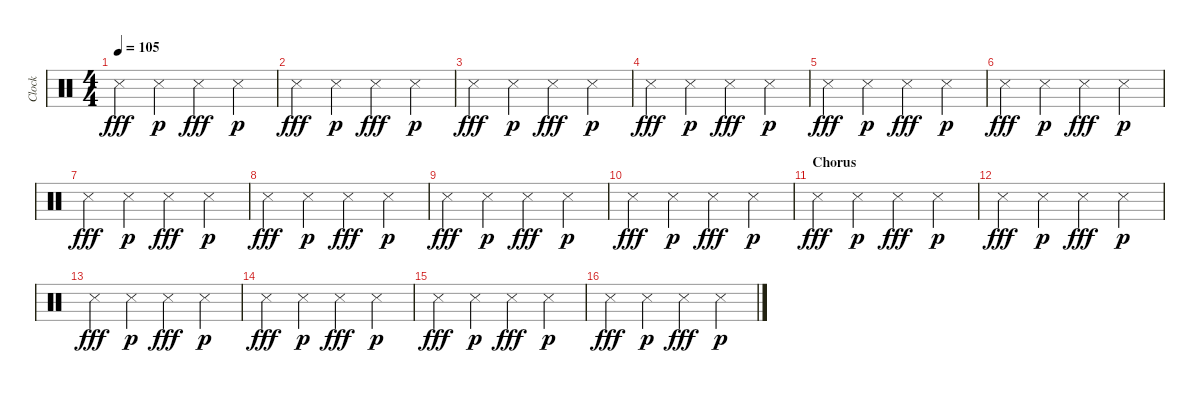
\track ("Clock" "Clock") {instrument percussion}
\staff {score}
\articulation defaults
\ts (4 4)
\tempo 105
\clef neutral
\ks c "Metronome (hit)".4{dy fff} "Metronome (hit)".4{dy p} "Metronome (hit)".4{dy fff} "Metronome (hit)".4{dy p}
|
"Metronome (hit)".4{dy fff} "Metronome (hit)".4{dy p} "Metronome (hit)".4{dy fff} "Metronome (hit)".4{dy p} |
"Metronome (hit)".4{dy fff} "Metronome (hit)".4{dy p} "Metronome (hit)".4{dy fff} "Metronome (hit)".4{dy p} |
"Metronome (hit)".4{dy fff} "Metronome (hit)".4{dy p} "Metronome (hit)".4{dy fff} "Metronome (hit)".4{dy p} |
"Metronome (hit)".4{dy fff} "Metronome (hit)".4{dy p} "Metronome (hit)".4{dy fff} "Metronome (hit)".4{dy p} |
"Metronome (hit)".4{dy fff} "Metronome (hit)".4{dy p} "Metronome (hit)".4{dy fff} "Metronome (hit)".4{dy p} |
"Metronome (hit)".4{dy fff} "Metronome (hit)".4{dy p} "Metronome (hit)".4{dy fff} "Metronome (hit)".4{dy p} |
"Metronome (hit)".4{dy fff} "Metronome (hit)".4{dy p} "Metronome (hit)".4{dy fff} "Metronome (hit)".4{dy p} |
"Metronome (hit)".4{dy fff} "Metronome (hit)".4{dy p} "Metronome (hit)".4{dy fff} "Metronome (hit)".4{dy p} |
"Metronome (hit)".4{dy fff} "Metronome (hit)".4{dy p} "Metronome (hit)".4{dy fff} "Metronome (hit)".4{dy p} |
\section ("" "Chorus")
"Metronome (hit)".4{dy fff} "Metronome (hit)".4{dy p} "Metronome (hit)".4{dy fff} "Metronome (hit)".4{dy p} |
"Metronome (hit)".4{dy fff} "Metronome (hit)".4{dy p} "Metronome (hit)".4{dy fff} "Metronome (hit)".4{dy p} |
"Metronome (hit)".4{dy fff} "Metronome (hit)".4{dy p} "Metronome (hit)".4{dy fff} "Metronome (hit)".4{dy p} |
"Metronome (hit)".4{dy fff} "Metronome (hit)".4{dy p} "Metronome (hit)".4{dy fff} "Metronome (hit)".4{dy p} |
"Metronome (hit)".4{dy fff} "Metronome (hit)".4{dy p} "Metronome (hit)".4{dy fff} "Metronome (hit)".4{dy p} |
"Metronome (hit)".4{dy fff} "Metronome (hit)".4{dy p} "Metronome (hit)".4{dy fff} "Metronome (hit)".4{dy p}
